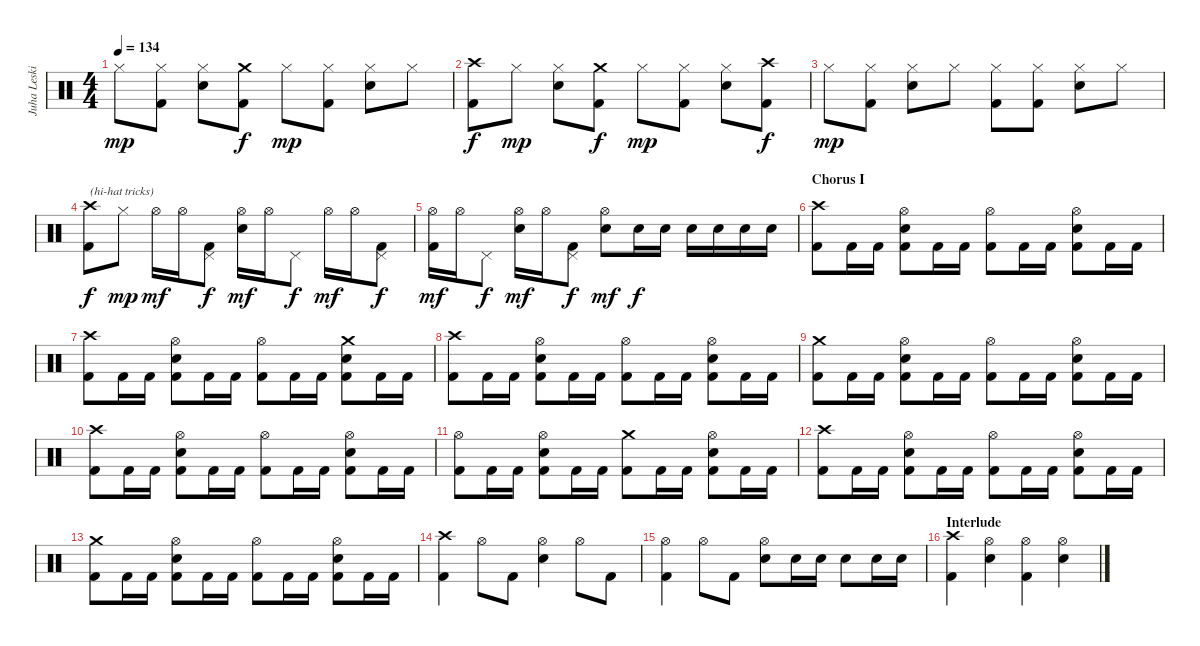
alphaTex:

\track ("Juha Leskinen - Drums" "Juha Leski") {instrument percussion}
\staff {score}
\articulation defaults
\ts (4 4)
\tempo 134
\clef neutral
\ks c "Hi-Hat (closed)".8{dy mp}
("Hi-Hat (closed)" "Kick (hit) 2").8 ("Hi-Hat (closed)" "Electric Snare (hit)").8 ("Crash medium (hit)" "Kick (hit) 2").8{dy f} "Hi-Hat (closed)".8{dy mp} ("Hi-Hat (closed)" "Kick (hit) 2").8 ("Hi-Hat (closed)" "Electric Snare (hit)").8 "Hi-Hat (closed)".8 |
("Crash high (hit)" "Kick (hit) 2").8{dy f} "Hi-Hat (closed)".8{dy mp} ("Hi-Hat (closed)" "Electric Snare (hit)").8 ("Crash medium (hit)" "Kick (hit) 2").8{dy f} "Hi-Hat (closed)".8{dy mp} ("Hi-Hat (closed)" "Kick (hit) 2").8 ("Hi-Hat (closed)" "Electric Snare (hit)").8 ("Crash high (hit)" "Kick (hit) 2").8{dy f} |
"Hi-Hat (closed)".8{dy mp} ("Hi-Hat (closed)" "Kick (hit) 2").8 ("Hi-Hat (closed)" "Electric Snare (hit)").8 "Hi-Hat (closed)".8 ("Hi-Hat (closed)" "Kick (hit) 2").8 ("Hi-Hat (closed)" "Kick (hit) 2").8 ("Hi-Hat (closed)" "Electric Snare (hit)").8 "Hi-Hat (closed)".8 |
("Crash high (hit)" "Kick (hit) 2").8{txt "(hi-hat tricks)" dy f} "Hi-Hat (closed)".8{dy mp} "Hi-Hat (open)".16{dy mf} "Hi-Hat (open)".16 ("Pedal Hi-Hat (hit)" "Kick (hit) 2").8{dy f} ("Hi-Hat (open)" "Electric Snare (hit)").16{dy mf} "Hi-Hat (open)".16 "Pedal Hi-Hat (hit)".8{dy f} "Hi-Hat (open)".16{dy mf} "Hi-Hat (open)".16 ("Pedal Hi-Hat (hit)" "Kick (hit) 2").8{dy f} |
("Hi-Hat (open)" "Kick (hit) 2").16{dy mf} "Hi-Hat (open)".16 "Pedal Hi-Hat (hit)".8{dy f} ("Hi-Hat (open)" "Electric Snare (hit)").16{dy mf} "Hi-Hat (open)".16 ("Pedal Hi-Hat (hit)" "Kick (hit) 2").8{dy f} ("Hi-Hat (open)" "Electric Snare (hit)").8{dy mf} "Electric Snare (hit)".16{dy f} "Electric Snare (hit)".16 "Electric Snare (hit)".16 "Electric Snare (hit)".16 "Electric Snare (hit)".16 "Electric Snare (hit)".16 |
\section ("" "Chorus I")
("Crash high (hit)" "Kick (hit) 2").8 "Kick (hit) 2".16 "Kick (hit) 2".16 ("Hi-Hat (open)" "Electric Snare (hit)" "Kick (hit) 2").8 "Kick (hit) 2".16 "Kick (hit) 2".16 ("Hi-Hat (open)" "Kick (hit) 2").8 "Kick (hit) 2".16 "Kick (hit) 2".16 ("Hi-Hat (open)" "Electric Snare (hit)" "Kick (hit) 2").8 "Kick (hit) 2".16 "Kick (hit) 2".16 |
("Crash high (hit)" "Kick (hit) 2").8 "Kick (hit) 2".16 "Kick (hit) 2".16 ("Hi-Hat (open)" "Electric Snare (hit)" "Kick (hit) 2").8 "Kick (hit) 2".16 "Kick (hit) 2".16 ("Hi-Hat (open)" "Kick (hit) 2").8 "Kick (hit) 2".16 "Kick (hit) 2".16 ("Crash medium (hit)" "Electric Snare (hit)" "Kick (hit) 2").8 "Kick (hit) 2".16 "Kick (hit) 2".16 |
("Crash high (hit)" "Kick (hit) 2").8 "Kick (hit) 2".16 "Kick (hit) 2".16 ("Hi-Hat (open)" "Electric Snare (hit)" "Kick (hit) 2").8 "Kick (hit) 2".16 "Kick (hit) 2".16 ("Hi-Hat (open)" "Kick (hit) 2").8 "Kick (hit) 2".16 "Kick (hit) 2".16 ("Hi-Hat (open)" "Electric Snare (hit)" "Kick (hit) 2").8 "Kick (hit) 2".16 "Kick (hit) 2".16 |
("Crash medium (hit)" "Kick (hit) 2").8 "Kick (hit) 2".16 "Kick (hit) 2".16 ("Hi-Hat (open)" "Electric Snare (hit)" "Kick (hit) 2").8 "Kick (hit) 2".16 "Kick (hit) 2".16 ("Hi-Hat (open)" "Kick (hit) 2").8 "Kick (hit) 2".16 "Kick (hit) 2".16 ("Hi-Hat (open)" "Electric Snare (hit)" "Kick (hit) 2").8 "Kick (hit) 2".16 "Kick (hit) 2".16 |
("Crash high (hit)" "Kick (hit) 2").8 "Kick (hit) 2".16 "Kick (hit) 2".16 ("Hi-Hat (open)" "Electric Snare (hit)" "Kick (hit) 2").8 "Kick (hit) 2".16 "Kick (hit) 2".16 ("Hi-Hat (open)" "Kick (hit) 2").8 "Kick (hit) 2".16 "Kick (hit) 2".16 ("Hi-Hat (open)" "Electric Snare (hit)" "Kick (hit) 2").8 "Kick (hit) 2".16 "Kick (hit) 2".16 |
("Hi-Hat (open)" "Kick (hit) 2").8 "Kick (hit) 2".16 "Kick (hit) 2".16 ("Hi-Hat (open)" "Electric Snare (hit)" "Kick (hit) 2").8 "Kick (hit) 2".16 "Kick (hit) 2".16 ("Crash medium (hit)" "Kick (hit) 2").8 "Kick (hit) 2".16 "Kick (hit) 2".16 ("Hi-Hat (open)" "Electric Snare (hit)" "Kick (hit) 2").8 "Kick (hit) 2".16 "Kick (hit) 2".16 |
("Crash high (hit)" "Kick (hit) 2").8 "Kick (hit) 2".16 "Kick (hit) 2".16 ("Hi-Hat (open)" "Electric Snare (hit)" "Kick (hit) 2").8 "Kick (hit) 2".16 "Kick (hit) 2".16 ("Hi-Hat (open)" "Kick (hit) 2").8 "Kick (hit) 2".16 "Kick (hit) 2".16 ("Hi-Hat (open)" "Electric Snare (hit)" "Kick (hit) 2").8 "Kick (hit) 2".16 "Kick (hit) 2".16 |
("Crash medium (hit)" "Kick (hit) 2").8 "Kick (hit) 2".16 "Kick (hit) 2".16 ("Hi-Hat (open)" "Electric Snare (hit)" "Kick (hit) 2").8 "Kick (hit) 2".16 "Kick (hit) 2".16 ("Hi-Hat (open)" "Kick (hit) 2").8 "Kick (hit) 2".16 "Kick (hit) 2".16 ("Hi-Hat (open)" "Electric Snare (hit)" "Kick (hit) 2").8 "Kick (hit) 2".16 "Kick (hit) 2".16 |
("Crash high (hit)" "Kick (hit) 2").4 "Hi-Hat (open)".8 "Kick (hit) 2".8 ("Hi-Hat (open)" "Electric Snare (hit)").4 "Hi-Hat (open)".8 "Kick (hit) 2".8 |
("Hi-Hat (open)" "Kick (hit) 2").4 "Hi-Hat (open)".8 "Kick (hit) 2".8 ("Hi-Hat (open)" "Electric Snare (hit)").8 "Electric Snare (hit)".16 "Electric Snare (hit)".16 "Electric Snare (hit)".8 "Electric Snare (hit)".16 "Electric Snare (hit)".16 |
\section ("" "Interlude")
("Crash high (hit)" "Kick (hit) 2").4 ("Hi-Hat (open)" "Electric Snare (hit)").4 ("Hi-Hat (open)" "Kick (hit) 2").4 ("Hi-Hat (open)" "Electric Snare (hit)").4
